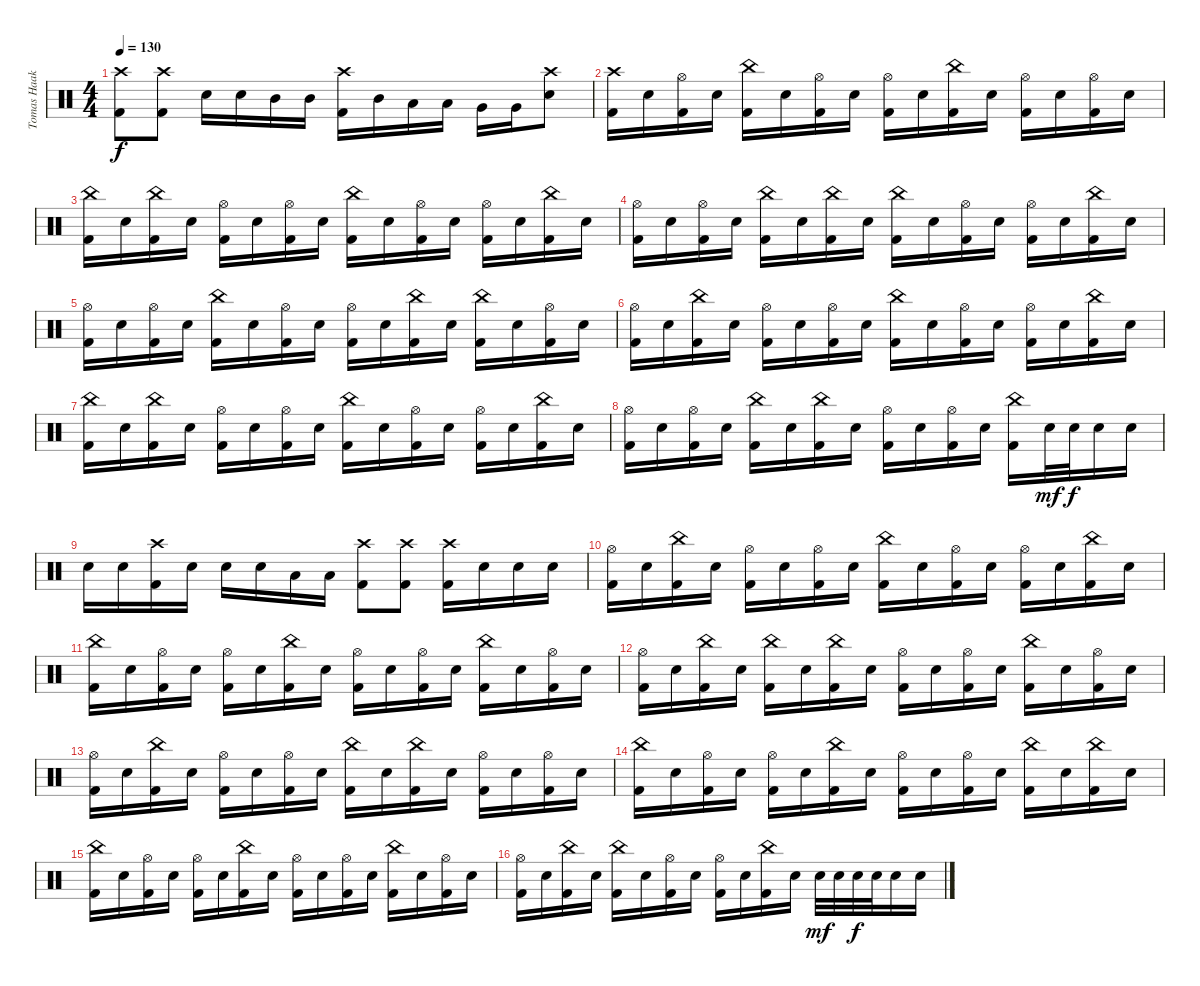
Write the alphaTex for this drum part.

\track ("Tomas Haake" "Tomas Haak") {instrument percussion}
\staff {score}
\articulation defaults
\ts (4 4)
\tempo 130
\clef neutral
\ks c
("Crash high (hit)" "Kick (hit) 2").8{dy f} ("Crash high (hit)" "Kick (hit) 2").8 "Electric Snare (hit)".16 "Electric Snare (hit)".16 "Mid Tom (hit)".16 "Mid Tom (hit)".16 ("Crash high (hit)" "Kick (hit) 2").16 "Mid Tom (hit)".16 "Low Tom (hit)".16 "Low Tom (hit)".16 "Very Low Tom (hit)".16 "Very Low Tom (hit)".16 ("Crash high (hit)" "Electric Snare (hit)").8 |
("Crash high (hit)" "Kick (hit) 2").16 "Electric Snare (hit)".16 ("Hi-Hat (open)" "Kick (hit) 2").16 "Electric Snare (hit)".16 ("China (hit)" "Kick (hit) 2").16 "Electric Snare (hit)".16 ("Hi-Hat (open)" "Kick (hit) 2").16 "Electric Snare (hit)".16 ("Hi-Hat (open)" "Kick (hit) 2").16 "Electric Snare (hit)".16 ("China (hit)" "Kick (hit) 2").16 "Electric Snare (hit)".16 ("Hi-Hat (open)" "Kick (hit) 2").16 "Electric Snare (hit)".16 ("Hi-Hat (open)" "Kick (hit) 2").16 "Electric Snare (hit)".16 |
("China (hit)" "Kick (hit) 2").16 "Electric Snare (hit)".16 ("China (hit)" "Kick (hit) 2").16 "Electric Snare (hit)".16 ("Hi-Hat (open)" "Kick (hit) 2").16 "Electric Snare (hit)".16 ("Hi-Hat (open)" "Kick (hit) 2").16 "Electric Snare (hit)".16 ("China (hit)" "Kick (hit) 2").16 "Electric Snare (hit)".16 ("Hi-Hat (open)" "Kick (hit) 2").16 "Electric Snare (hit)".16 ("Hi-Hat (open)" "Kick (hit) 2").16 "Electric Snare (hit)".16 ("China (hit)" "Kick (hit) 2").16 "Electric Snare (hit)".16 |
("Hi-Hat (open)" "Kick (hit) 2").16 "Electric Snare (hit)".16 ("Hi-Hat (open)" "Kick (hit) 2").16 "Electric Snare (hit)".16 ("China (hit)" "Kick (hit) 2").16 "Electric Snare (hit)".16 ("China (hit)" "Kick (hit) 2").16 "Electric Snare (hit)".16 ("China (hit)" "Kick (hit) 2").16 "Electric Snare (hit)".16 ("Hi-Hat (open)" "Kick (hit) 2").16 "Electric Snare (hit)".16 ("Hi-Hat (open)" "Kick (hit) 2").16 "Electric Snare (hit)".16 ("China (hit)" "Kick (hit) 2").16 "Electric Snare (hit)".16 |
("Hi-Hat (open)" "Kick (hit) 2").16 "Electric Snare (hit)".16 ("Hi-Hat (open)" "Kick (hit) 2").16 "Electric Snare (hit)".16 ("China (hit)" "Kick (hit) 2").16 "Electric Snare (hit)".16 ("Hi-Hat (open)" "Kick (hit) 2").16 "Electric Snare (hit)".16 ("Hi-Hat (open)" "Kick (hit) 2").16 "Electric Snare (hit)".16 ("China (hit)" "Kick (hit) 2").16 "Electric Snare (hit)".16 ("China (hit)" "Kick (hit) 2").16 "Electric Snare (hit)".16 ("Hi-Hat (open)" "Kick (hit) 2").16 "Electric Snare (hit)".16 |
("Hi-Hat (open)" "Kick (hit) 2").16 "Electric Snare (hit)".16 ("China (hit)" "Kick (hit) 2").16 "Electric Snare (hit)".16 ("Hi-Hat (open)" "Kick (hit) 2").16 "Electric Snare (hit)".16 ("Hi-Hat (open)" "Kick (hit) 2").16 "Electric Snare (hit)".16 ("China (hit)" "Kick (hit) 2").16 "Electric Snare (hit)".16 ("Hi-Hat (open)" "Kick (hit) 2").16 "Electric Snare (hit)".16 ("Hi-Hat (open)" "Kick (hit) 2").16 "Electric Snare (hit)".16 ("China (hit)" "Kick (hit) 2").16 "Electric Snare (hit)".16 |
("China (hit)" "Kick (hit) 2").16 "Electric Snare (hit)".16 ("China (hit)" "Kick (hit) 2").16 "Electric Snare (hit)".16 ("Hi-Hat (open)" "Kick (hit) 2").16 "Electric Snare (hit)".16 ("Hi-Hat (open)" "Kick (hit) 2").16 "Electric Snare (hit)".16 ("China (hit)" "Kick (hit) 2").16 "Electric Snare (hit)".16 ("Hi-Hat (open)" "Kick (hit) 2").16 "Electric Snare (hit)".16 ("Hi-Hat (open)" "Kick (hit) 2").16 "Electric Snare (hit)".16 ("China (hit)" "Kick (hit) 2").16 "Electric Snare (hit)".16 |
("Hi-Hat (open)" "Kick (hit) 2").16 "Electric Snare (hit)".16 ("Hi-Hat (open)" "Kick (hit) 2").16 "Electric Snare (hit)".16 ("China (hit)" "Kick (hit) 2").16 "Electric Snare (hit)".16 ("China (hit)" "Kick (hit) 2").16 "Electric Snare (hit)".16 ("Hi-Hat (open)" "Kick (hit) 2").16 "Electric Snare (hit)".16 ("Hi-Hat (open)" "Kick (hit) 2").16 "Electric Snare (hit)".16 ("China (hit)" "Kick (hit) 2").16 "Electric Snare (hit)".32{dy mf} "Electric Snare (hit)".32{dy f} "Electric Snare (hit)".16 "Electric Snare (hit)".16 |
"Electric Snare (hit)".16 "Electric Snare (hit)".16 ("Crash high (hit)" "Kick (hit) 2").16 "Electric Snare (hit)".16 "Electric Snare (hit)".16 "Electric Snare (hit)".16 "Low Tom (hit)".16 "Low Tom (hit)".16 ("Crash high (hit)" "Kick (hit) 2").8 ("Crash high (hit)" "Kick (hit) 2").8 ("Crash high (hit)" "Kick (hit) 2").16 "Electric Snare (hit)".16 "Electric Snare (hit)".16 "Electric Snare (hit)".16 |
("Hi-Hat (open)" "Kick (hit) 2").16 "Electric Snare (hit)".16 ("China (hit)" "Kick (hit) 2").16 "Electric Snare (hit)".16 ("Hi-Hat (open)" "Kick (hit) 2").16 "Electric Snare (hit)".16 ("Hi-Hat (open)" "Kick (hit) 2").16 "Electric Snare (hit)".16 ("China (hit)" "Kick (hit) 2").16 "Electric Snare (hit)".16 ("Hi-Hat (open)" "Kick (hit) 2").16 "Electric Snare (hit)".16 ("Hi-Hat (open)" "Kick (hit) 2").16 "Electric Snare (hit)".16 ("China (hit)" "Kick (hit) 2").16 "Electric Snare (hit)".16 |
("China (hit)" "Kick (hit) 2").16 "Electric Snare (hit)".16 ("Hi-Hat (open)" "Kick (hit) 2").16 "Electric Snare (hit)".16 ("Hi-Hat (open)" "Kick (hit) 2").16 "Electric Snare (hit)".16 ("China (hit)" "Kick (hit) 2").16 "Electric Snare (hit)".16 ("Hi-Hat (open)" "Kick (hit) 2").16 "Electric Snare (hit)".16 ("Hi-Hat (open)" "Kick (hit) 2").16 "Electric Snare (hit)".16 ("China (hit)" "Kick (hit) 2").16 "Electric Snare (hit)".16 ("Hi-Hat (open)" "Kick (hit) 2").16 "Electric Snare (hit)".16 |
("Hi-Hat (open)" "Kick (hit) 2").16 "Electric Snare (hit)".16 ("China (hit)" "Kick (hit) 2").16 "Electric Snare (hit)".16 ("China (hit)" "Kick (hit) 2").16 "Electric Snare (hit)".16 ("China (hit)" "Kick (hit) 2").16 "Electric Snare (hit)".16 ("Hi-Hat (open)" "Kick (hit) 2").16 "Electric Snare (hit)".16 ("Hi-Hat (open)" "Kick (hit) 2").16 "Electric Snare (hit)".16 ("China (hit)" "Kick (hit) 2").16 "Electric Snare (hit)".16 ("Hi-Hat (open)" "Kick (hit) 2").16 "Electric Snare (hit)".16 |
("Hi-Hat (open)" "Kick (hit) 2").16 "Electric Snare (hit)".16 ("China (hit)" "Kick (hit) 2").16 "Electric Snare (hit)".16 ("Hi-Hat (open)" "Kick (hit) 2").16 "Electric Snare (hit)".16 ("Hi-Hat (open)" "Kick (hit) 2").16 "Electric Snare (hit)".16 ("China (hit)" "Kick (hit) 2").16 "Electric Snare (hit)".16 ("China (hit)" "Kick (hit) 2").16 "Electric Snare (hit)".16 ("Hi-Hat (open)" "Kick (hit) 2").16 "Electric Snare (hit)".16 ("Hi-Hat (open)" "Kick (hit) 2").16 "Electric Snare (hit)".16 |
("China (hit)" "Kick (hit) 2").16 "Electric Snare (hit)".16 ("Hi-Hat (open)" "Kick (hit) 2").16 "Electric Snare (hit)".16 ("Hi-Hat (open)" "Kick (hit) 2").16 "Electric Snare (hit)".16 ("China (hit)" "Kick (hit) 2").16 "Electric Snare (hit)".16 ("Hi-Hat (open)" "Kick (hit) 2").16 "Electric Snare (hit)".16 ("Hi-Hat (open)" "Kick (hit) 2").16 "Electric Snare (hit)".16 ("China (hit)" "Kick (hit) 2").16 "Electric Snare (hit)".16 ("China (hit)" "Kick (hit) 2").16 "Electric Snare (hit)".16 |
("China (hit)" "Kick (hit) 2").16 "Electric Snare (hit)".16 ("Hi-Hat (open)" "Kick (hit) 2").16 "Electric Snare (hit)".16 ("Hi-Hat (open)" "Kick (hit) 2").16 "Electric Snare (hit)".16 ("China (hit)" "Kick (hit) 2").16 "Electric Snare (hit)".16 ("Hi-Hat (open)" "Kick (hit) 2").16 "Electric Snare (hit)".16 ("Hi-Hat (open)" "Kick (hit) 2").16 "Electric Snare (hit)".16 ("China (hit)" "Kick (hit) 2").16 "Electric Snare (hit)".16 ("Hi-Hat (open)" "Kick (hit) 2").16 "Electric Snare (hit)".16 |
("Hi-Hat (open)" "Kick (hit) 2").16 "Electric Snare (hit)".16 ("China (hit)" "Kick (hit) 2").16 "Electric Snare (hit)".16 ("China (hit)" "Kick (hit) 2").16 "Electric Snare (hit)".16 ("Hi-Hat (open)" "Kick (hit) 2").16 "Electric Snare (hit)".16 ("Hi-Hat (open)" "Kick (hit) 2").16 "Electric Snare (hit)".16 ("China (hit)" "Kick (hit) 2").16 "Electric Snare (hit)".16 "Electric Snare (hit)".32{dy mf} "Electric Snare (hit)".32 "Electric Snare (hit)".32{dy f} "Electric Snare (hit)".32 "Electric Snare (hit)".16 "Electric Snare (hit)".16
